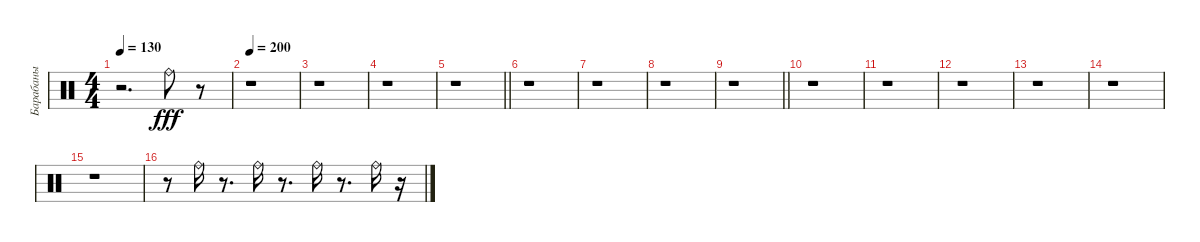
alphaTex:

\track ("Барабаны" "Барабаны") {instrument percussion}
\staff {score}
\articulation defaults
\ts (4 4)
\tempo 130
\clef neutral
\ks c
r.2{d dy fff} "Ride (bell)".8 r.8 |
\tempo 200
r.1 |
r.1 |
r.1 |
\barLineRight lightlight
r.1 |
\section ("" " ")
r.1 |
r.1 |
r.1 |
\barLineRight lightlight
r.1 |
\section ("" " ")
r.1 |
r.1 |
r.1 |
r.1 |
r.1 |
r.1 |
r.8 "Ride (bell)".16 r.8{d} "Ride (bell)".16 r.8{d} "Ride (bell)".16 r.8{d} "Ride (bell)".16 r.16
